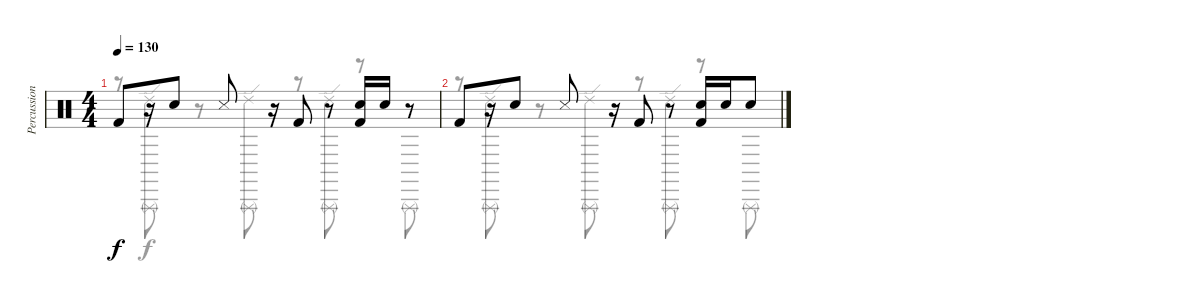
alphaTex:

\track ("Percussion" "Percussion") {instrument percussion}
\staff {score}
\articulation defaults
\voice
\ts (4 4)
\tempo 130
\clef neutral
\ks c "Kick (hit) 2".8{dy f}
r.16 "Electric Snare (hit)".8 "Snare (side stick) 3".8 r.16 "Kick (hit) 2".8 r.8 ("Electric Snare (hit)" "Kick (hit) 2").16 "Electric Snare (hit)".16 r.8 |
"Kick (hit) 2".8 r.16 "Electric Snare (hit)".8 "Snare (side stick) 3".8 r.16 "Kick (hit) 2".8 r.8 ("Electric Snare (hit)" "Kick (hit) 2").16 "Electric Snare (hit)".16 "Electric Snare (hit)".8 |
\voice
\clef neutral
\ottava regular
\simile none
\ks c
r.8{dy f} ("Triangle (rnute)" "Ride (edge) 2").8 r.8 ("Triangle (rnute)" "Ride (edge) 2").8 r.8 ("Triangle (rnute)" "Ride (edge) 2").8 r.8 "Triangle (rnute)".8 |
r.8 ("Triangle (rnute)" "Ride (edge) 2").8 r.8 ("Triangle (rnute)" "Ride (edge) 2").8 r.8 ("Triangle (rnute)" "Ride (edge) 2").8 r.8 "Triangle (rnute)".8 |
